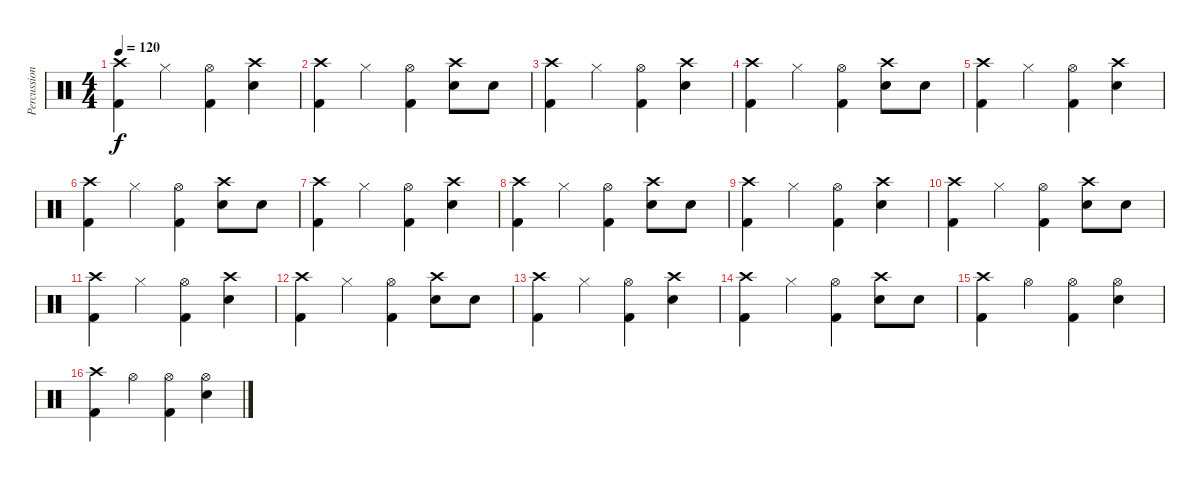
\track ("Percussions" "Percussion") {instrument percussion}
\staff {score}
\articulation defaults
\ts (4 4)
\tempo 120
\clef neutral
\ks c
("Crash high (hit)" "Kick (hit) 2").4{dy f} "Hi-Hat (closed)".4 ("Hi-Hat (open)" "Kick (hit) 2").4 ("Crash high (hit)" "Snare (hit) 2").4 |
("Crash high (hit)" "Kick (hit) 2").4 "Hi-Hat (closed)".4 ("Hi-Hat (open)" "Kick (hit) 2").4 ("Crash high (hit)" "Snare (hit) 2").8 "Snare (hit) 2".8 |
("Crash high (hit)" "Kick (hit) 2").4 "Hi-Hat (closed)".4 ("Hi-Hat (open)" "Kick (hit) 2").4 ("Crash high (hit)" "Snare (hit) 2").4 |
("Crash high (hit)" "Kick (hit) 2").4 "Hi-Hat (closed)".4 ("Hi-Hat (open)" "Kick (hit) 2").4 ("Crash high (hit)" "Snare (hit) 2").8 "Snare (hit) 2".8 |
("Crash high (hit)" "Kick (hit) 2").4 "Hi-Hat (closed)".4 ("Hi-Hat (open)" "Kick (hit) 2").4 ("Crash high (hit)" "Snare (hit) 2").4 |
("Crash high (hit)" "Kick (hit) 2").4 "Hi-Hat (closed)".4 ("Hi-Hat (open)" "Kick (hit) 2").4 ("Crash high (hit)" "Snare (hit) 2").8 "Snare (hit) 2".8 |
("Crash high (hit)" "Kick (hit) 2").4 "Hi-Hat (closed)".4 ("Hi-Hat (open)" "Kick (hit) 2").4 ("Crash high (hit)" "Snare (hit) 2").4 |
("Crash high (hit)" "Kick (hit) 2").4 "Hi-Hat (closed)".4 ("Hi-Hat (open)" "Kick (hit) 2").4 ("Crash high (hit)" "Snare (hit) 2").8 "Snare (hit) 2".8 |
("Crash high (hit)" "Kick (hit) 2").4 "Hi-Hat (closed)".4 ("Hi-Hat (open)" "Kick (hit) 2").4 ("Crash high (hit)" "Snare (hit) 2").4 |
("Crash high (hit)" "Kick (hit) 2").4 "Hi-Hat (closed)".4 ("Hi-Hat (open)" "Kick (hit) 2").4 ("Crash high (hit)" "Snare (hit) 2").8 "Snare (hit) 2".8 |
("Crash high (hit)" "Kick (hit) 2").4 "Hi-Hat (closed)".4 ("Hi-Hat (open)" "Kick (hit) 2").4 ("Crash high (hit)" "Snare (hit) 2").4 |
("Crash high (hit)" "Kick (hit) 2").4 "Hi-Hat (closed)".4 ("Hi-Hat (open)" "Kick (hit) 2").4 ("Crash high (hit)" "Snare (hit) 2").8 "Snare (hit) 2".8 |
("Crash high (hit)" "Kick (hit) 2").4 "Hi-Hat (closed)".4 ("Hi-Hat (open)" "Kick (hit) 2").4 ("Crash high (hit)" "Snare (hit) 2").4 |
("Crash high (hit)" "Kick (hit) 2").4 "Hi-Hat (closed)".4 ("Hi-Hat (open)" "Kick (hit) 2").4 ("Crash high (hit)" "Snare (hit) 2").8 "Snare (hit) 2".8 |
("Crash high (hit)" "Kick (hit) 2").4 "Hi-Hat (open)".4 ("Hi-Hat (open)" "Kick (hit) 2").4 ("Hi-Hat (open)" "Snare (hit) 2").4 |
("Crash high (hit)" "Kick (hit) 2").4 "Hi-Hat (open)".4 ("Hi-Hat (open)" "Kick (hit) 2").4 ("Hi-Hat (open)" "Snare (hit) 2").4
